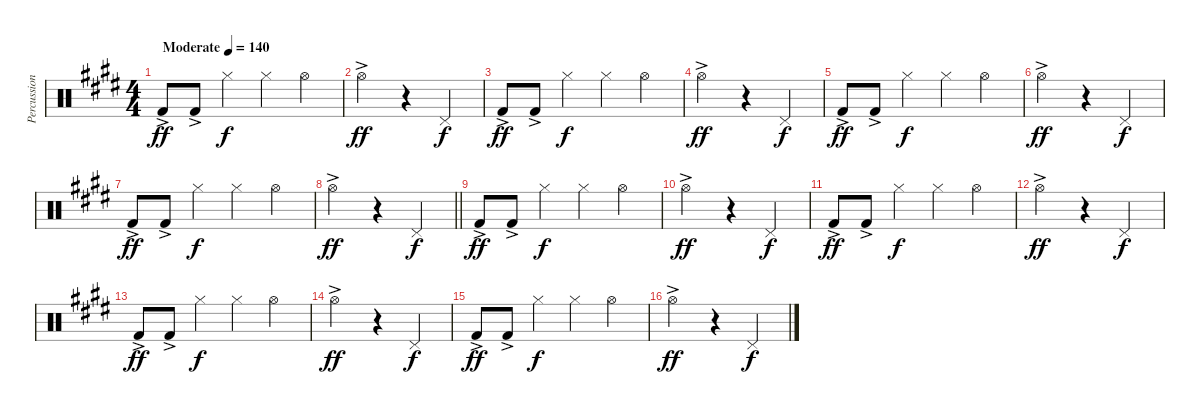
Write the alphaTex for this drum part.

\track ("Percussion" "Percussion") {instrument percussion}
\staff {score}
\articulation defaults
\ts (4 4)
\tempo (140 "Moderate")
\clef neutral
\ks e "Kick (hit) 2"{ac}.8{dy ff} "Kick (hit) 2"{ac}.8 "Hi-Hat (closed)".4{dy f} "Hi-Hat (closed)".4 "Hi-Hat (open)".4
|
"Hi-Hat (open)"{ac}.2{dy ff} r.4 "Pedal Hi-Hat (hit)".4{dy f} |
"Kick (hit) 2"{ac}.8{dy ff} "Kick (hit) 2"{ac}.8 "Hi-Hat (closed)".4{dy f} "Hi-Hat (closed)".4 "Hi-Hat (open)".4 |
"Hi-Hat (open)"{ac}.2{dy ff} r.4 "Pedal Hi-Hat (hit)".4{dy f} |
"Kick (hit) 2"{ac}.8{dy ff} "Kick (hit) 2"{ac}.8 "Hi-Hat (closed)".4{dy f} "Hi-Hat (closed)".4 "Hi-Hat (open)".4 |
"Hi-Hat (open)"{ac}.2{dy ff} r.4 "Pedal Hi-Hat (hit)".4{dy f} |
"Kick (hit) 2"{ac}.8{dy ff} "Kick (hit) 2"{ac}.8 "Hi-Hat (closed)".4{dy f} "Hi-Hat (closed)".4 "Hi-Hat (open)".4 |
\barLineRight lightlight "Hi-Hat (open)"{ac}.2{dy ff}
r.4 "Pedal Hi-Hat (hit)".4{dy f} |
"Kick (hit) 2"{ac}.8{dy ff} "Kick (hit) 2"{ac}.8 "Hi-Hat (closed)".4{dy f} "Hi-Hat (closed)".4 "Hi-Hat (open)".4 |
"Hi-Hat (open)"{ac}.2{dy ff} r.4 "Pedal Hi-Hat (hit)".4{dy f} |
"Kick (hit) 2"{ac}.8{dy ff} "Kick (hit) 2"{ac}.8 "Hi-Hat (closed)".4{dy f} "Hi-Hat (closed)".4 "Hi-Hat (open)".4 |
"Hi-Hat (open)"{ac}.2{dy ff} r.4 "Pedal Hi-Hat (hit)".4{dy f} |
"Kick (hit) 2"{ac}.8{dy ff} "Kick (hit) 2"{ac}.8 "Hi-Hat (closed)".4{dy f} "Hi-Hat (closed)".4 "Hi-Hat (open)".4 |
"Hi-Hat (open)"{ac}.2{dy ff} r.4 "Pedal Hi-Hat (hit)".4{dy f} |
"Kick (hit) 2"{ac}.8{dy ff} "Kick (hit) 2"{ac}.8 "Hi-Hat (closed)".4{dy f} "Hi-Hat (closed)".4 "Hi-Hat (open)".4 |
"Hi-Hat (open)"{ac}.2{dy ff} r.4 "Pedal Hi-Hat (hit)".4{dy f}
